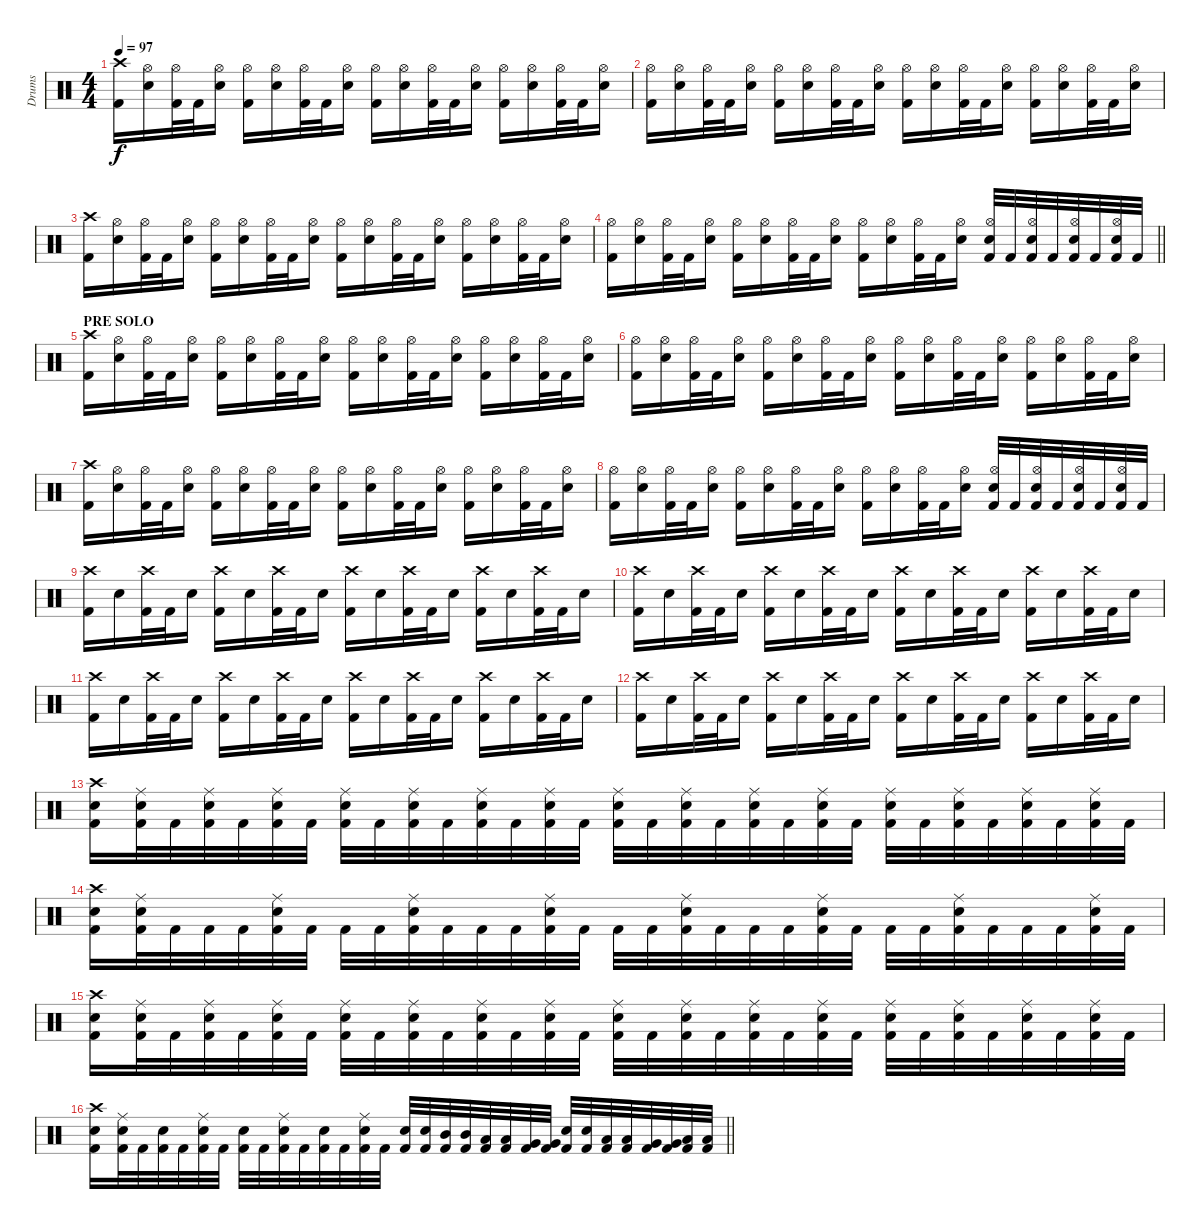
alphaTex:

\track ("Drums" "Drums") {instrument percussion}
\staff
\articulation defaults
\ts (4 4)
\tempo 97
\clef neutral
\ks c
("Crash high (hit)" "Kick (hit) 2").16{dy f} ("Hi-Hat (open)" "Electric Snare (hit)").16 ("Hi-Hat (open)" "Kick (hit) 2").32 "Kick (hit) 2".32 ("Hi-Hat (open)" "Electric Snare (hit)").16 ("Hi-Hat (open)" "Kick (hit) 2").16 ("Hi-Hat (open)" "Electric Snare (hit)").16 ("Hi-Hat (open)" "Kick (hit) 2").32 "Kick (hit) 2".32 ("Hi-Hat (open)" "Electric Snare (hit)").16 ("Hi-Hat (open)" "Kick (hit) 2").16 ("Hi-Hat (open)" "Electric Snare (hit)").16 ("Hi-Hat (open)" "Kick (hit) 2").32 "Kick (hit) 2".32 ("Hi-Hat (open)" "Electric Snare (hit)").16 ("Hi-Hat (open)" "Kick (hit) 2").16 ("Hi-Hat (open)" "Electric Snare (hit)").16 ("Hi-Hat (open)" "Kick (hit) 2").32 "Kick (hit) 2".32 ("Hi-Hat (open)" "Electric Snare (hit)").16 |
("Hi-Hat (open)" "Kick (hit) 2").16 ("Hi-Hat (open)" "Electric Snare (hit)").16 ("Hi-Hat (open)" "Kick (hit) 2").32 "Kick (hit) 2".32 ("Hi-Hat (open)" "Electric Snare (hit)").16 ("Hi-Hat (open)" "Kick (hit) 2").16 ("Hi-Hat (open)" "Electric Snare (hit)").16 ("Hi-Hat (open)" "Kick (hit) 2").32 "Kick (hit) 2".32 ("Hi-Hat (open)" "Electric Snare (hit)").16 ("Hi-Hat (open)" "Kick (hit) 2").16 ("Hi-Hat (open)" "Electric Snare (hit)").16 ("Hi-Hat (open)" "Kick (hit) 2").32 "Kick (hit) 2".32 ("Hi-Hat (open)" "Electric Snare (hit)").16 ("Hi-Hat (open)" "Kick (hit) 2").16 ("Hi-Hat (open)" "Electric Snare (hit)").16 ("Hi-Hat (open)" "Kick (hit) 2").32 "Kick (hit) 2".32 ("Hi-Hat (open)" "Electric Snare (hit)").16 |
("Crash high (hit)" "Kick (hit) 2").16 ("Hi-Hat (open)" "Electric Snare (hit)").16 ("Hi-Hat (open)" "Kick (hit) 2").32 "Kick (hit) 2".32 ("Hi-Hat (open)" "Electric Snare (hit)").16 ("Hi-Hat (open)" "Kick (hit) 2").16 ("Hi-Hat (open)" "Electric Snare (hit)").16 ("Hi-Hat (open)" "Kick (hit) 2").32 "Kick (hit) 2".32 ("Hi-Hat (open)" "Electric Snare (hit)").16 ("Hi-Hat (open)" "Kick (hit) 2").16 ("Hi-Hat (open)" "Electric Snare (hit)").16 ("Hi-Hat (open)" "Kick (hit) 2").32 "Kick (hit) 2".32 ("Hi-Hat (open)" "Electric Snare (hit)").16 ("Hi-Hat (open)" "Kick (hit) 2").16 ("Hi-Hat (open)" "Electric Snare (hit)").16 ("Hi-Hat (open)" "Kick (hit) 2").32 "Kick (hit) 2".32 ("Hi-Hat (open)" "Electric Snare (hit)").16 |
\barLineRight lightlight
("Hi-Hat (open)" "Kick (hit) 2").16 ("Hi-Hat (open)" "Electric Snare (hit)").16 ("Hi-Hat (open)" "Kick (hit) 2").32 "Kick (hit) 2".32 ("Hi-Hat (open)" "Electric Snare (hit)").16 ("Hi-Hat (open)" "Kick (hit) 2").16 ("Hi-Hat (open)" "Electric Snare (hit)").16 ("Hi-Hat (open)" "Kick (hit) 2").32 "Kick (hit) 2".32 ("Hi-Hat (open)" "Electric Snare (hit)").16 ("Hi-Hat (open)" "Kick (hit) 2").16 ("Hi-Hat (open)" "Electric Snare (hit)").16 ("Hi-Hat (open)" "Kick (hit) 2").32 "Kick (hit) 2".32 ("Hi-Hat (open)" "Electric Snare (hit)").16 ("Hi-Hat (open)" "Electric Snare (hit)" "Kick (hit) 2").32 "Kick (hit) 2".32 ("Hi-Hat (open)" "Electric Snare (hit)" "Kick (hit) 2").32 "Kick (hit) 2".32 ("Hi-Hat (open)" "Electric Snare (hit)" "Kick (hit) 2").32 "Kick (hit) 2".32 ("Hi-Hat (open)" "Electric Snare (hit)" "Kick (hit) 2").32 "Kick (hit) 2".32 |
\section ("" "PRE SOLO")
("Crash high (hit)" "Kick (hit) 2").16 ("Hi-Hat (open)" "Electric Snare (hit)").16 ("Hi-Hat (open)" "Kick (hit) 2").32 "Kick (hit) 2".32 ("Hi-Hat (open)" "Electric Snare (hit)").16 ("Hi-Hat (open)" "Kick (hit) 2").16 ("Hi-Hat (open)" "Electric Snare (hit)").16 ("Hi-Hat (open)" "Kick (hit) 2").32 "Kick (hit) 2".32 ("Hi-Hat (open)" "Electric Snare (hit)").16 ("Hi-Hat (open)" "Kick (hit) 2").16 ("Hi-Hat (open)" "Electric Snare (hit)").16 ("Hi-Hat (open)" "Kick (hit) 2").32 "Kick (hit) 2".32 ("Hi-Hat (open)" "Electric Snare (hit)").16 ("Hi-Hat (open)" "Kick (hit) 2").16 ("Hi-Hat (open)" "Electric Snare (hit)").16 ("Hi-Hat (open)" "Kick (hit) 2").32 "Kick (hit) 2".32 ("Hi-Hat (open)" "Electric Snare (hit)").16 |
("Hi-Hat (open)" "Kick (hit) 2").16 ("Hi-Hat (open)" "Electric Snare (hit)").16 ("Hi-Hat (open)" "Kick (hit) 2").32 "Kick (hit) 2".32 ("Hi-Hat (open)" "Electric Snare (hit)").16 ("Hi-Hat (open)" "Kick (hit) 2").16 ("Hi-Hat (open)" "Electric Snare (hit)").16 ("Hi-Hat (open)" "Kick (hit) 2").32 "Kick (hit) 2".32 ("Hi-Hat (open)" "Electric Snare (hit)").16 ("Hi-Hat (open)" "Kick (hit) 2").16 ("Hi-Hat (open)" "Electric Snare (hit)").16 ("Hi-Hat (open)" "Kick (hit) 2").32 "Kick (hit) 2".32 ("Hi-Hat (open)" "Electric Snare (hit)").16 ("Hi-Hat (open)" "Kick (hit) 2").16 ("Hi-Hat (open)" "Electric Snare (hit)").16 ("Hi-Hat (open)" "Kick (hit) 2").32 "Kick (hit) 2".32 ("Hi-Hat (open)" "Electric Snare (hit)").16 |
("Crash high (hit)" "Kick (hit) 2").16 ("Hi-Hat (open)" "Electric Snare (hit)").16 ("Hi-Hat (open)" "Kick (hit) 2").32 "Kick (hit) 2".32 ("Hi-Hat (open)" "Electric Snare (hit)").16 ("Hi-Hat (open)" "Kick (hit) 2").16 ("Hi-Hat (open)" "Electric Snare (hit)").16 ("Hi-Hat (open)" "Kick (hit) 2").32 "Kick (hit) 2".32 ("Hi-Hat (open)" "Electric Snare (hit)").16 ("Hi-Hat (open)" "Kick (hit) 2").16 ("Hi-Hat (open)" "Electric Snare (hit)").16 ("Hi-Hat (open)" "Kick (hit) 2").32 "Kick (hit) 2".32 ("Hi-Hat (open)" "Electric Snare (hit)").16 ("Hi-Hat (open)" "Kick (hit) 2").16 ("Hi-Hat (open)" "Electric Snare (hit)").16 ("Hi-Hat (open)" "Kick (hit) 2").32 "Kick (hit) 2".32 ("Hi-Hat (open)" "Electric Snare (hit)").16 |
("Hi-Hat (open)" "Kick (hit) 2").16 ("Hi-Hat (open)" "Electric Snare (hit)").16 ("Hi-Hat (open)" "Kick (hit) 2").32 "Kick (hit) 2".32 ("Hi-Hat (open)" "Electric Snare (hit)").16 ("Hi-Hat (open)" "Kick (hit) 2").16 ("Hi-Hat (open)" "Electric Snare (hit)").16 ("Hi-Hat (open)" "Kick (hit) 2").32 "Kick (hit) 2".32 ("Hi-Hat (open)" "Electric Snare (hit)").16 ("Hi-Hat (open)" "Kick (hit) 2").16 ("Hi-Hat (open)" "Electric Snare (hit)").16 ("Hi-Hat (open)" "Kick (hit) 2").32 "Kick (hit) 2".32 ("Hi-Hat (open)" "Electric Snare (hit)").16 ("Hi-Hat (open)" "Electric Snare (hit)" "Kick (hit) 2").32 "Kick (hit) 2".32 ("Hi-Hat (open)" "Electric Snare (hit)" "Kick (hit) 2").32 "Kick (hit) 2".32 ("Hi-Hat (open)" "Electric Snare (hit)" "Kick (hit) 2").32 "Kick (hit) 2".32 ("Hi-Hat (open)" "Electric Snare (hit)" "Kick (hit) 2").32 "Kick (hit) 2".32 |
("Crash high (hit)" "Kick (hit) 2").16 "Electric Snare (hit)".16 ("Crash high (hit)" "Kick (hit) 2").32 "Kick (hit) 2".32 "Electric Snare (hit)".16 ("Crash high (hit)" "Kick (hit) 2").16 "Electric Snare (hit)".16 ("Crash high (hit)" "Kick (hit) 2").32 "Kick (hit) 2".32 "Electric Snare (hit)".16 ("Crash high (hit)" "Kick (hit) 2").16 "Electric Snare (hit)".16 ("Crash high (hit)" "Kick (hit) 2").32 "Kick (hit) 2".32 "Electric Snare (hit)".16 ("Crash high (hit)" "Kick (hit) 2").16 "Electric Snare (hit)".16 ("Crash high (hit)" "Kick (hit) 2").32 "Kick (hit) 2".32 "Electric Snare (hit)".16 |
("Crash high (hit)" "Kick (hit) 2").16 "Electric Snare (hit)".16 ("Crash high (hit)" "Kick (hit) 2").32 "Kick (hit) 2".32 "Electric Snare (hit)".16 ("Crash high (hit)" "Kick (hit) 2").16 "Electric Snare (hit)".16 ("Crash high (hit)" "Kick (hit) 2").32 "Kick (hit) 2".32 "Electric Snare (hit)".16 ("Crash high (hit)" "Kick (hit) 2").16 "Electric Snare (hit)".16 ("Crash high (hit)" "Kick (hit) 2").32 "Kick (hit) 2".32 "Electric Snare (hit)".16 ("Crash high (hit)" "Kick (hit) 2").16 "Electric Snare (hit)".16 ("Crash high (hit)" "Kick (hit) 2").32 "Kick (hit) 2".32 "Electric Snare (hit)".16 |
("Crash high (hit)" "Kick (hit) 2").16 "Electric Snare (hit)".16 ("Crash high (hit)" "Kick (hit) 2").32 "Kick (hit) 2".32 "Electric Snare (hit)".16 ("Crash high (hit)" "Kick (hit) 2").16 "Electric Snare (hit)".16 ("Crash high (hit)" "Kick (hit) 2").32 "Kick (hit) 2".32 "Electric Snare (hit)".16 ("Crash high (hit)" "Kick (hit) 2").16 "Electric Snare (hit)".16 ("Crash high (hit)" "Kick (hit) 2").32 "Kick (hit) 2".32 "Electric Snare (hit)".16 ("Crash high (hit)" "Kick (hit) 2").16 "Electric Snare (hit)".16 ("Crash high (hit)" "Kick (hit) 2").32 "Kick (hit) 2".32 "Electric Snare (hit)".16 |
("Crash high (hit)" "Kick (hit) 2").16 "Electric Snare (hit)".16 ("Crash high (hit)" "Kick (hit) 2").32 "Kick (hit) 2".32 "Electric Snare (hit)".16 ("Crash high (hit)" "Kick (hit) 2").16 "Electric Snare (hit)".16 ("Crash high (hit)" "Kick (hit) 2").32 "Kick (hit) 2".32 "Electric Snare (hit)".16 ("Crash high (hit)" "Kick (hit) 2").16 "Electric Snare (hit)".16 ("Crash high (hit)" "Kick (hit) 2").32 "Kick (hit) 2".32 "Electric Snare (hit)".16 ("Crash high (hit)" "Kick (hit) 2").16 "Electric Snare (hit)".16 ("Crash high (hit)" "Kick (hit) 2").32 "Kick (hit) 2".32 "Electric Snare (hit)".16 |
("Crash high (hit)" "Electric Snare (hit)" "Kick (hit) 2").16 ("Ride (middle)" "Electric Snare (hit)" "Kick (hit) 2").32 "Kick (hit) 2".32 ("Ride (middle)" "Electric Snare (hit)" "Kick (hit) 2").32 "Kick (hit) 2".32 ("Ride (middle)" "Electric Snare (hit)" "Kick (hit) 2").32 "Kick (hit) 2".32 ("Ride (middle)" "Electric Snare (hit)" "Kick (hit) 2").32 "Kick (hit) 2".32 ("Ride (middle)" "Electric Snare (hit)" "Kick (hit) 2").32 "Kick (hit) 2".32 ("Ride (middle)" "Electric Snare (hit)" "Kick (hit) 2").32 "Kick (hit) 2".32 ("Ride (middle)" "Electric Snare (hit)" "Kick (hit) 2").32 "Kick (hit) 2".32 ("Ride (middle)" "Electric Snare (hit)" "Kick (hit) 2").32 "Kick (hit) 2".32 ("Ride (middle)" "Electric Snare (hit)" "Kick (hit) 2").32 "Kick (hit) 2".32 ("Ride (middle)" "Electric Snare (hit)" "Kick (hit) 2").32 "Kick (hit) 2".32 ("Ride (middle)" "Electric Snare (hit)" "Kick (hit) 2").32 "Kick (hit) 2".32 ("Ride (middle)" "Electric Snare (hit)" "Kick (hit) 2").32 "Kick (hit) 2".32 ("Ride (middle)" "Electric Snare (hit)" "Kick (hit) 2").32 "Kick (hit) 2".32 ("Ride (middle)" "Electric Snare (hit)" "Kick (hit) 2").32 "Kick (hit) 2".32 ("Ride (middle)" "Electric Snare (hit)" "Kick (hit) 2").32 "Kick (hit) 2".32 |
("Crash high (hit)" "Electric Snare (hit)" "Kick (hit) 2").16 ("Ride (middle)" "Electric Snare (hit)" "Kick (hit) 2").32 "Kick (hit) 2".32 "Kick (hit) 2".32 "Kick (hit) 2".32 ("Ride (middle)" "Electric Snare (hit)" "Kick (hit) 2").32 "Kick (hit) 2".32 "Kick (hit) 2".32 "Kick (hit) 2".32 ("Ride (middle)" "Electric Snare (hit)" "Kick (hit) 2").32 "Kick (hit) 2".32 "Kick (hit) 2".32 "Kick (hit) 2".32 ("Ride (middle)" "Electric Snare (hit)" "Kick (hit) 2").32 "Kick (hit) 2".32 "Kick (hit) 2".32 "Kick (hit) 2".32 ("Ride (middle)" "Electric Snare (hit)" "Kick (hit) 2").32 "Kick (hit) 2".32 "Kick (hit) 2".32 "Kick (hit) 2".32 ("Ride (middle)" "Electric Snare (hit)" "Kick (hit) 2").32 "Kick (hit) 2".32 "Kick (hit) 2".32 "Kick (hit) 2".32 ("Ride (middle)" "Electric Snare (hit)" "Kick (hit) 2").32 "Kick (hit) 2".32 "Kick (hit) 2".32 "Kick (hit) 2".32 ("Ride (middle)" "Electric Snare (hit)" "Kick (hit) 2").32 "Kick (hit) 2".32 |
("Crash high (hit)" "Electric Snare (hit)" "Kick (hit) 2").16 ("Ride (middle)" "Electric Snare (hit)" "Kick (hit) 2").32 "Kick (hit) 2".32 ("Ride (middle)" "Electric Snare (hit)" "Kick (hit) 2").32 "Kick (hit) 2".32 ("Ride (middle)" "Electric Snare (hit)" "Kick (hit) 2").32 "Kick (hit) 2".32 ("Ride (middle)" "Electric Snare (hit)" "Kick (hit) 2").32 "Kick (hit) 2".32 ("Ride (middle)" "Electric Snare (hit)" "Kick (hit) 2").32 "Kick (hit) 2".32 ("Ride (middle)" "Electric Snare (hit)" "Kick (hit) 2").32 "Kick (hit) 2".32 ("Ride (middle)" "Electric Snare (hit)" "Kick (hit) 2").32 "Kick (hit) 2".32 ("Ride (middle)" "Electric Snare (hit)" "Kick (hit) 2").32 "Kick (hit) 2".32 ("Ride (middle)" "Electric Snare (hit)" "Kick (hit) 2").32 "Kick (hit) 2".32 ("Ride (middle)" "Electric Snare (hit)" "Kick (hit) 2").32 "Kick (hit) 2".32 ("Ride (middle)" "Electric Snare (hit)" "Kick (hit) 2").32 "Kick (hit) 2".32 ("Ride (middle)" "Electric Snare (hit)" "Kick (hit) 2").32 "Kick (hit) 2".32 ("Ride (middle)" "Electric Snare (hit)" "Kick (hit) 2").32 "Kick (hit) 2".32 ("Ride (middle)" "Electric Snare (hit)" "Kick (hit) 2").32 "Kick (hit) 2".32 ("Ride (middle)" "Electric Snare (hit)" "Kick (hit) 2").32 "Kick (hit) 2".32 |
\barLineRight lightlight
("Crash high (hit)" "Electric Snare (hit)" "Kick (hit) 2").16 ("Ride (middle)" "Electric Snare (hit)" "Kick (hit) 2").32 "Kick (hit) 2".32 ("Electric Snare (hit)" "Kick (hit) 2").32 "Kick (hit) 2".32 ("Ride (middle)" "Electric Snare (hit)" "Kick (hit) 2").32 "Kick (hit) 2".32 ("Electric Snare (hit)" "Kick (hit) 2").32 "Kick (hit) 2".32 ("Ride (middle)" "Electric Snare (hit)" "Kick (hit) 2").32 "Kick (hit) 2".32 ("Electric Snare (hit)" "Kick (hit) 2").32 "Kick (hit) 2".32 ("Ride (middle)" "Electric Snare (hit)" "Kick (hit) 2").32 "Kick (hit) 2".32 ("Electric Snare (hit)" "Kick (hit) 2").32 ("Electric Snare (hit)" "Kick (hit) 2").32 ("Mid Tom (hit)" "Kick (hit) 2").32 ("Mid Tom (hit)" "Kick (hit) 2").32 ("Low Tom (hit)" "Kick (hit) 2").32 ("Low Tom (hit)" "Kick (hit) 2").32 ("Very Low Tom (hit)" "Kick (hit) 2").32 ("Very Low Tom (hit)" "Kick (hit) 2").32 ("Electric Snare (hit)" "Kick (hit) 2").32 ("Electric Snare (hit)" "Kick (hit) 2").32 ("Low Tom (hit)" "Kick (hit) 2").32 ("Low Tom (hit)" "Kick (hit) 2").32 ("Very Low Tom (hit)" "Kick (hit) 2").32 ("Very Low Tom (hit)" "Kick (hit) 2").32 ("Low Floor Tom (hit)" "Kick (hit) 2").32 ("Low Floor Tom (hit)" "Kick (hit) 2").32
